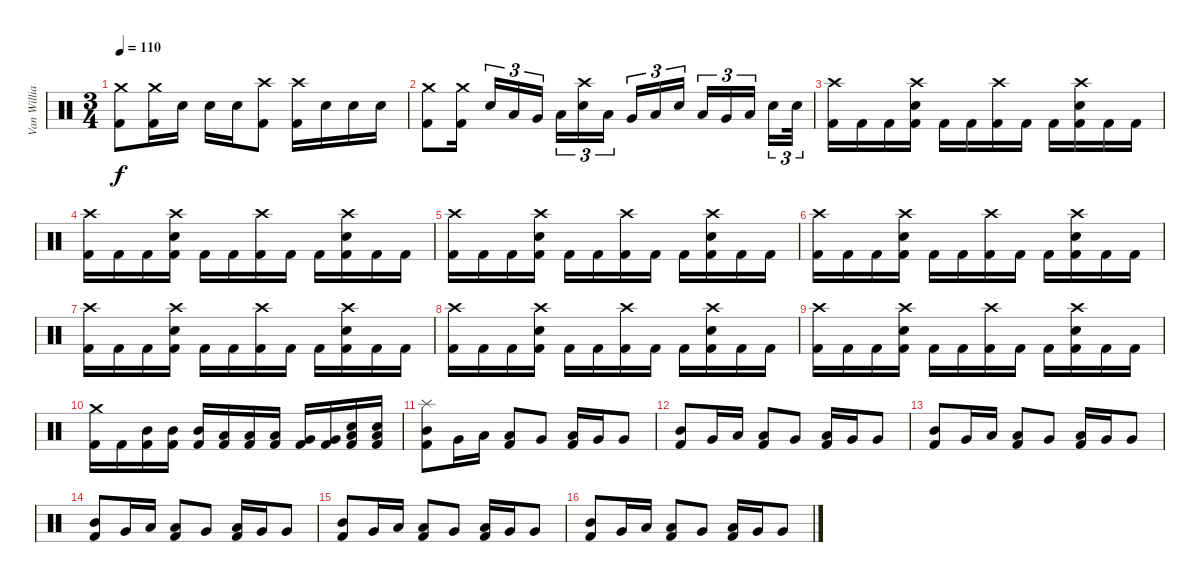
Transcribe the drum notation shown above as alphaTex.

\track ("Van Williams" "Van Willia") {instrument percussion}
\staff {score}
\articulation defaults
\ts (3 4)
\tempo 110
\clef neutral
\ks c
("Crash medium (hit)" "Kick (hit) 2").8{dy f} ("Crash medium (hit)" "Kick (hit) 2").16 "Electric Snare (hit)".16 "Electric Snare (hit)".16 "Electric Snare (hit)".16 ("Crash high (hit)" "Kick (hit) 2").8 ("Crash high (hit)" "Kick (hit) 2").16 "Electric Snare (hit)".16 "Electric Snare (hit)".16 "Electric Snare (hit)".16 |
("Crash medium (hit)" "Kick (hit) 2").8 ("Crash medium (hit)" "Kick (hit) 2").16{beam splitsecondary} "Electric Snare (hit)".16{tu (3 2)} "Low Tom (hit)".16{tu (3 2)} "Very Low Tom (hit)".16{tu (3 2) beam splitsecondary} "Low Floor Tom (hit)".16{tu (3 2)} ("Crash high (hit)" "Electric Snare (hit)").16{tu (3 2)} "Low Tom (hit)".16{tu (3 2) beam splitsecondary} "Very Low Tom (hit)".16{tu (3 2)} "Low Floor Tom (hit)".16{tu (3 2)} "Electric Snare (hit)".16{tu (3 2) beam splitsecondary} "Low Tom (hit)".16{tu (3 2)} "Very Low Tom (hit)".16{tu (3 2)} "Low Floor Tom (hit)".16{tu (3 2) beam splitsecondary} "Electric Snare (hit)".16{tu (3 2)} "Electric Snare (hit)".32{tu (3 2)} |
("Crash high (hit)" "Kick (hit) 2").16 "Kick (hit) 2".16 "Kick (hit) 2".16 ("Crash high (hit)" "Electric Snare (hit)" "Kick (hit) 2").16 "Kick (hit) 2".16 "Kick (hit) 2".16 ("Crash high (hit)" "Kick (hit) 2").16 "Kick (hit) 2".16 "Kick (hit) 2".16 ("Crash high (hit)" "Electric Snare (hit)" "Kick (hit) 2").16 "Kick (hit) 2".16 "Kick (hit) 2".16 |
("Crash high (hit)" "Kick (hit) 2").16 "Kick (hit) 2".16 "Kick (hit) 2".16 ("Crash high (hit)" "Electric Snare (hit)" "Kick (hit) 2").16 "Kick (hit) 2".16 "Kick (hit) 2".16 ("Crash high (hit)" "Kick (hit) 2").16 "Kick (hit) 2".16 "Kick (hit) 2".16 ("Crash high (hit)" "Electric Snare (hit)" "Kick (hit) 2").16 "Kick (hit) 2".16 "Kick (hit) 2".16 |
("Crash high (hit)" "Kick (hit) 2").16 "Kick (hit) 2".16 "Kick (hit) 2".16 ("Crash high (hit)" "Electric Snare (hit)" "Kick (hit) 2").16 "Kick (hit) 2".16 "Kick (hit) 2".16 ("Crash high (hit)" "Kick (hit) 2").16 "Kick (hit) 2".16 "Kick (hit) 2".16 ("Crash high (hit)" "Electric Snare (hit)" "Kick (hit) 2").16 "Kick (hit) 2".16 "Kick (hit) 2".16 |
("Crash high (hit)" "Kick (hit) 2").16 "Kick (hit) 2".16 "Kick (hit) 2".16 ("Crash high (hit)" "Electric Snare (hit)" "Kick (hit) 2").16 "Kick (hit) 2".16 "Kick (hit) 2".16 ("Crash high (hit)" "Kick (hit) 2").16 "Kick (hit) 2".16 "Kick (hit) 2".16 ("Crash high (hit)" "Electric Snare (hit)" "Kick (hit) 2").16 "Kick (hit) 2".16 "Kick (hit) 2".16 |
("Crash high (hit)" "Kick (hit) 2").16 "Kick (hit) 2".16 "Kick (hit) 2".16 ("Crash high (hit)" "Electric Snare (hit)" "Kick (hit) 2").16 "Kick (hit) 2".16 "Kick (hit) 2".16 ("Crash high (hit)" "Kick (hit) 2").16 "Kick (hit) 2".16 "Kick (hit) 2".16 ("Crash high (hit)" "Electric Snare (hit)" "Kick (hit) 2").16 "Kick (hit) 2".16 "Kick (hit) 2".16 |
("Crash high (hit)" "Kick (hit) 2").16 "Kick (hit) 2".16 "Kick (hit) 2".16 ("Crash high (hit)" "Electric Snare (hit)" "Kick (hit) 2").16 "Kick (hit) 2".16 "Kick (hit) 2".16 ("Crash high (hit)" "Kick (hit) 2").16 "Kick (hit) 2".16 "Kick (hit) 2".16 ("Crash high (hit)" "Electric Snare (hit)" "Kick (hit) 2").16 "Kick (hit) 2".16 "Kick (hit) 2".16 |
("Crash high (hit)" "Kick (hit) 2").16 "Kick (hit) 2".16 "Kick (hit) 2".16 ("Crash high (hit)" "Electric Snare (hit)" "Kick (hit) 2").16 "Kick (hit) 2".16 "Kick (hit) 2".16 ("Crash high (hit)" "Kick (hit) 2").16 "Kick (hit) 2".16 "Kick (hit) 2".16 ("Crash high (hit)" "Electric Snare (hit)" "Kick (hit) 2").16 "Kick (hit) 2".16 "Kick (hit) 2".16 |
("Crash medium (hit)" "Kick (hit) 2").16 "Kick (hit) 2".16 ("Mid Tom (hit)" "Kick (hit) 2").16 ("Mid Tom (hit)" "Kick (hit) 2").16 ("Mid Tom (hit)" "Kick (hit) 2").16 ("Low Tom (hit)" "Kick (hit) 2").16 ("Low Tom (hit)" "Kick (hit) 2").16 ("Low Tom (hit)" "Kick (hit) 2").16 ("Very Low Tom (hit)" "Kick (hit) 2").16 ("Very Low Tom (hit)" "Kick (hit) 2").16 ("Low Floor Tom (hit)" "Electric Snare (hit)" "Kick (hit) 2").16 ("Low Floor Tom (hit)" "Electric Snare (hit)" "Kick (hit) 2").16 |
("Splash (hit)" "Mid Tom (hit)" "Kick (hit) 2").8 "Very Low Tom (hit)".16 "Low Tom (hit)".16 ("Low Tom (hit)" "Kick (hit) 2").8 "Very Low Tom (hit)".8 ("Low Floor Tom (hit)" "Kick (hit) 2").16 "Very Low Tom (hit)".16 "Very Low Tom (hit)".8 |
("Mid Tom (hit)" "Kick (hit) 2").8 "Very Low Tom (hit)".16 "Low Tom (hit)".16 ("Low Tom (hit)" "Kick (hit) 2").8 "Very Low Tom (hit)".8 ("Low Floor Tom (hit)" "Kick (hit) 2").16 "Very Low Tom (hit)".16 "Very Low Tom (hit)".8 |
("Mid Tom (hit)" "Kick (hit) 2").8 "Very Low Tom (hit)".16 "Low Tom (hit)".16 ("Low Tom (hit)" "Kick (hit) 2").8 "Very Low Tom (hit)".8 ("Low Floor Tom (hit)" "Kick (hit) 2").16 "Very Low Tom (hit)".16 "Very Low Tom (hit)".8 |
("Mid Tom (hit)" "Kick (hit) 2").8 "Very Low Tom (hit)".16 "Low Tom (hit)".16 ("Low Tom (hit)" "Kick (hit) 2").8 "Very Low Tom (hit)".8 ("Low Floor Tom (hit)" "Kick (hit) 2").16 "Very Low Tom (hit)".16 "Very Low Tom (hit)".8 |
("Mid Tom (hit)" "Kick (hit) 2").8 "Very Low Tom (hit)".16 "Low Tom (hit)".16 ("Low Tom (hit)" "Kick (hit) 2").8 "Very Low Tom (hit)".8 ("Low Floor Tom (hit)" "Kick (hit) 2").16 "Very Low Tom (hit)".16 "Very Low Tom (hit)".8 |
("Mid Tom (hit)" "Kick (hit) 2").8 "Very Low Tom (hit)".16 "Low Tom (hit)".16 ("Low Tom (hit)" "Kick (hit) 2").8 "Very Low Tom (hit)".8 ("Low Floor Tom (hit)" "Kick (hit) 2").16 "Very Low Tom (hit)".16 "Very Low Tom (hit)".8
